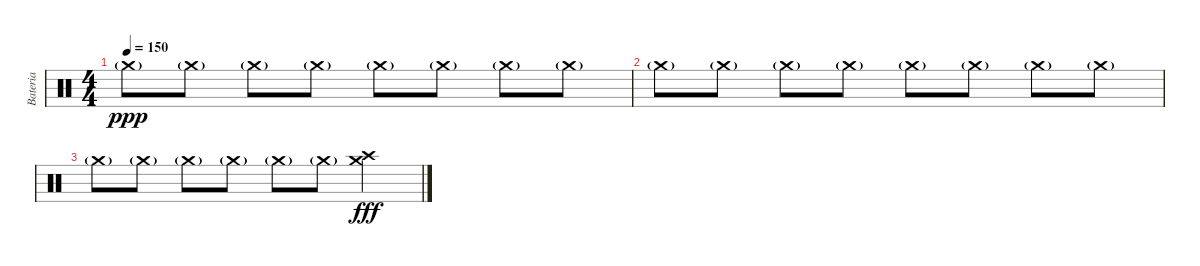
\track ("Bateria" "Bateria") {instrument percussion}
\staff {score}
\articulation defaults
\ts (4 4)
\tempo 150
\clef neutral
\ks c "Crash medium (hit)"{g}.8{dy ppp} "Crash medium (hit)"{g}.8 "Crash medium (hit)"{g}.8 "Crash medium (hit)"{g}.8 "Crash medium (hit)"{g}.8 "Crash medium (hit)"{g}.8 "Crash medium (hit)"{g}.8 "Crash medium (hit)"{g}.8
|
"Crash medium (hit)"{g}.8 "Crash medium (hit)"{g}.8 "Crash medium (hit)"{g}.8 "Crash medium (hit)"{g}.8 "Crash medium (hit)"{g}.8 "Crash medium (hit)"{g}.8 "Crash medium (hit)"{g}.8 "Crash medium (hit)"{g}.8 |
"Crash medium (hit)"{g}.8 "Crash medium (hit)"{g}.8 "Crash medium (hit)"{g}.8 "Crash medium (hit)"{g}.8 "Crash medium (hit)"{g}.8 "Crash medium (hit)"{g}.8 ("Crash medium (hit)" "Crash high (hit)").4{dy fff}
